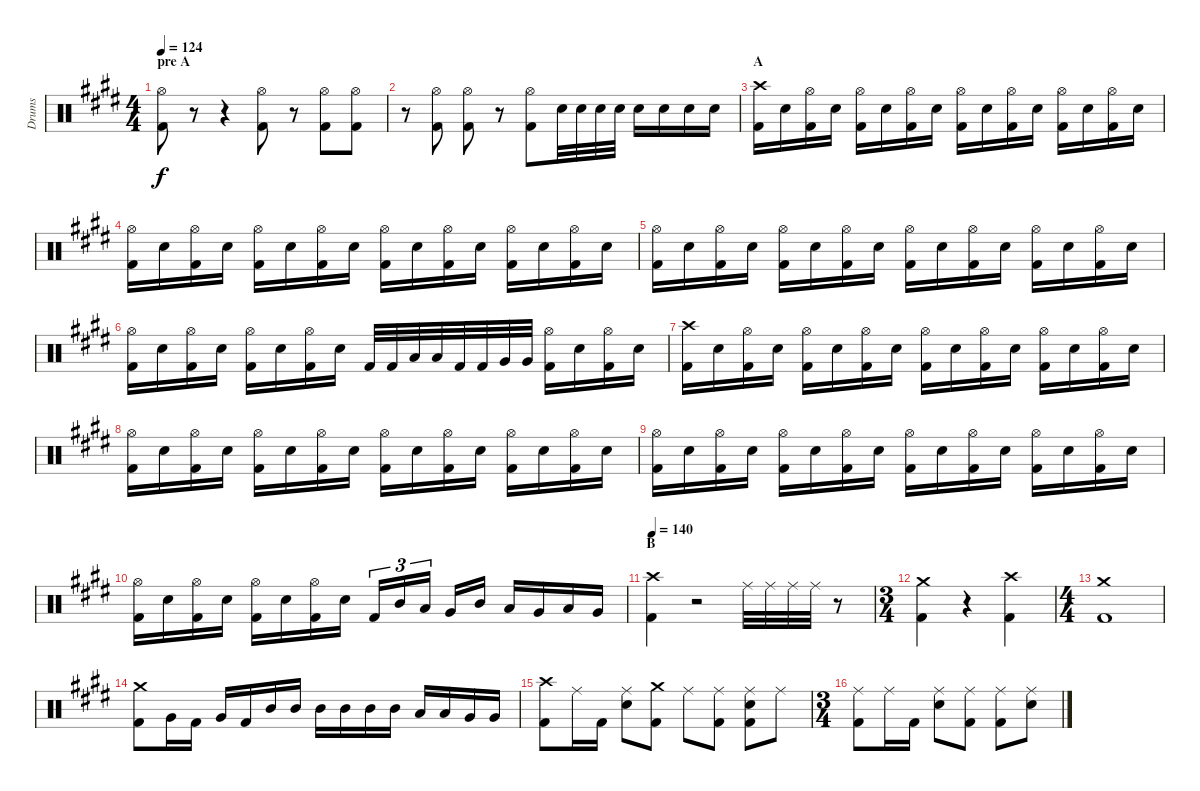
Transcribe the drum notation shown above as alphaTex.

\track ("Drums" "Drums") {instrument percussion}
\staff {score}
\articulation defaults
\ts (4 4)
\section ("" "pre A")
\tempo 124
\clef neutral
\ks e
("Hi-Hat (open)" "Kick (hit) 2").8{dy f} r.8 r.4 ("Hi-Hat (open)" "Kick (hit) 2").8 r.8 ("Hi-Hat (open)" "Kick (hit) 2").8 ("Hi-Hat (open)" "Kick (hit) 2").8 |
r.8 ("Hi-Hat (open)" "Kick (hit) 2").8 ("Hi-Hat (open)" "Kick (hit) 2").8 r.8 ("Hi-Hat (open)" "Kick (hit) 2").8 "Electric Snare (hit)".32 "Electric Snare (hit)".32 "Electric Snare (hit)".32 "Electric Snare (hit)".32 "Electric Snare (hit)".16 "Electric Snare (hit)".16 "Electric Snare (hit)".16 "Electric Snare (hit)".16 |
\section ("" "A")
("Crash high (hit)" "Kick (hit) 2").16 "Electric Snare (hit)".16 ("Hi-Hat (open)" "Kick (hit) 2").16 "Electric Snare (hit)".16 ("Hi-Hat (open)" "Kick (hit) 2").16 "Electric Snare (hit)".16 ("Hi-Hat (open)" "Kick (hit) 2").16 "Electric Snare (hit)".16 ("Hi-Hat (open)" "Kick (hit) 2").16 "Electric Snare (hit)".16 ("Hi-Hat (open)" "Kick (hit) 2").16 "Electric Snare (hit)".16 ("Hi-Hat (open)" "Kick (hit) 2").16 "Electric Snare (hit)".16 ("Hi-Hat (open)" "Kick (hit) 2").16 "Electric Snare (hit)".16 |
("Hi-Hat (open)" "Kick (hit) 2").16 "Electric Snare (hit)".16 ("Hi-Hat (open)" "Kick (hit) 2").16 "Electric Snare (hit)".16 ("Hi-Hat (open)" "Kick (hit) 2").16 "Electric Snare (hit)".16 ("Hi-Hat (open)" "Kick (hit) 2").16 "Electric Snare (hit)".16 ("Hi-Hat (open)" "Kick (hit) 2").16 "Electric Snare (hit)".16 ("Hi-Hat (open)" "Kick (hit) 2").16 "Electric Snare (hit)".16 ("Hi-Hat (open)" "Kick (hit) 2").16 "Electric Snare (hit)".16 ("Hi-Hat (open)" "Kick (hit) 2").16 "Electric Snare (hit)".16 |
("Hi-Hat (open)" "Kick (hit) 2").16 "Electric Snare (hit)".16 ("Hi-Hat (open)" "Kick (hit) 2").16 "Electric Snare (hit)".16 ("Hi-Hat (open)" "Kick (hit) 2").16 "Electric Snare (hit)".16 ("Hi-Hat (open)" "Kick (hit) 2").16 "Electric Snare (hit)".16 ("Hi-Hat (open)" "Kick (hit) 2").16 "Electric Snare (hit)".16 ("Hi-Hat (open)" "Kick (hit) 2").16 "Electric Snare (hit)".16 ("Hi-Hat (open)" "Kick (hit) 2").16 "Electric Snare (hit)".16 ("Hi-Hat (open)" "Kick (hit) 2").16 "Electric Snare (hit)".16 |
("Hi-Hat (open)" "Kick (hit) 2").16 "Electric Snare (hit)".16 ("Hi-Hat (open)" "Kick (hit) 2").16 "Electric Snare (hit)".16 ("Hi-Hat (open)" "Kick (hit) 2").16 "Electric Snare (hit)".16 ("Hi-Hat (open)" "Kick (hit) 2").16 "Electric Snare (hit)".16 "Kick (hit) 2".32 "Kick (hit) 2".32 "Low Tom (hit)".32 "Low Tom (hit)".32 "Kick (hit) 2".32 "Kick (hit) 2".32 "Very Low Tom (hit)".32 "Very Low Tom (hit)".32 ("Hi-Hat (open)" "Kick (hit) 2").16 "Electric Snare (hit)".16 ("Hi-Hat (open)" "Kick (hit) 2").16 "Electric Snare (hit)".16 |
("Crash high (hit)" "Kick (hit) 2").16 "Electric Snare (hit)".16 ("Hi-Hat (open)" "Kick (hit) 2").16 "Electric Snare (hit)".16 ("Hi-Hat (open)" "Kick (hit) 2").16 "Electric Snare (hit)".16 ("Hi-Hat (open)" "Kick (hit) 2").16 "Electric Snare (hit)".16 ("Hi-Hat (open)" "Kick (hit) 2").16 "Electric Snare (hit)".16 ("Hi-Hat (open)" "Kick (hit) 2").16 "Electric Snare (hit)".16 ("Hi-Hat (open)" "Kick (hit) 2").16 "Electric Snare (hit)".16 ("Hi-Hat (open)" "Kick (hit) 2").16 "Electric Snare (hit)".16 |
("Hi-Hat (open)" "Kick (hit) 2").16 "Electric Snare (hit)".16 ("Hi-Hat (open)" "Kick (hit) 2").16 "Electric Snare (hit)".16 ("Hi-Hat (open)" "Kick (hit) 2").16 "Electric Snare (hit)".16 ("Hi-Hat (open)" "Kick (hit) 2").16 "Electric Snare (hit)".16 ("Hi-Hat (open)" "Kick (hit) 2").16 "Electric Snare (hit)".16 ("Hi-Hat (open)" "Kick (hit) 2").16 "Electric Snare (hit)".16 ("Hi-Hat (open)" "Kick (hit) 2").16 "Electric Snare (hit)".16 ("Hi-Hat (open)" "Kick (hit) 2").16 "Electric Snare (hit)".16 |
("Hi-Hat (open)" "Kick (hit) 2").16 "Electric Snare (hit)".16 ("Hi-Hat (open)" "Kick (hit) 2").16 "Electric Snare (hit)".16 ("Hi-Hat (open)" "Kick (hit) 2").16 "Electric Snare (hit)".16 ("Hi-Hat (open)" "Kick (hit) 2").16 "Electric Snare (hit)".16 ("Hi-Hat (open)" "Kick (hit) 2").16 "Electric Snare (hit)".16 ("Hi-Hat (open)" "Kick (hit) 2").16 "Electric Snare (hit)".16 ("Hi-Hat (open)" "Kick (hit) 2").16 "Electric Snare (hit)".16 ("Hi-Hat (open)" "Kick (hit) 2").16 "Electric Snare (hit)".16 |
("Hi-Hat (open)" "Kick (hit) 2").16 "Electric Snare (hit)".16 ("Hi-Hat (open)" "Kick (hit) 2").16 "Electric Snare (hit)".16 ("Hi-Hat (open)" "Kick (hit) 2").16 "Electric Snare (hit)".16 ("Hi-Hat (open)" "Kick (hit) 2").16 "Electric Snare (hit)".16 "Kick (hit) 2".16{tu (3 2)} "Mid Tom (hit)".16{tu (3 2)} "Low Tom (hit)".16{tu (3 2)} "Very Low Tom (hit)".16 "Mid Tom (hit)".16 "Low Tom (hit)".16 "Very Low Tom (hit)".16 "Low Tom (hit)".16 "Very Low Tom (hit)".16 |
\section ("" "B")
\tempo 140
("Kick (hit) 2" "Crash high (hit)").4 r.2 "Ride (middle)".32 "Ride (middle)".32 "Ride (middle)".32 "Ride (middle)".32 r.8 |
\ts (3 4)
("Kick (hit) 2" "Crash medium (hit)").4 r.4 ("Kick (hit) 2" "Crash high (hit)").4 |
\ts (4 4)
("Kick (hit) 2" "Crash medium (hit)").1 |
("Crash medium (hit)" "Kick (hit) 2").8 "Very Low Tom (hit)".16 "Kick (hit) 2".16 "Very Low Tom (hit)".16 "Kick (hit) 2".16 "Mid Tom (hit)".16 "Mid Tom (hit)".16 "Mid Tom (hit)".16 "Mid Tom (hit)".16 "Mid Tom (hit)".16 "Mid Tom (hit)".16 "Low Tom (hit)".16 "Low Tom (hit)".16 "Very Low Tom (hit)".16 "Very Low Tom (hit)".16 |
("Crash high (hit)" "Kick (hit) 2").8 "Ride (middle)".16 "Kick (hit) 2".16 ("Ride (middle)" "Electric Snare (hit)").8 ("Crash medium (hit)" "Kick (hit) 2").8 "Ride (middle)".8 ("Ride (middle)" "Kick (hit) 2").8 ("Ride (middle)" "Electric Snare (hit)" "Kick (hit) 2").8 "Ride (middle)".8 |
\ts (3 4)
("Ride (middle)" "Kick (hit) 2").8 "Ride (middle)".16 "Kick (hit) 2".16 ("Ride (middle)" "Electric Snare (hit)").8 ("Ride (middle)" "Kick (hit) 2").8 ("Ride (middle)" "Kick (hit) 2").8 ("Ride (middle)" "Electric Snare (hit)").8
